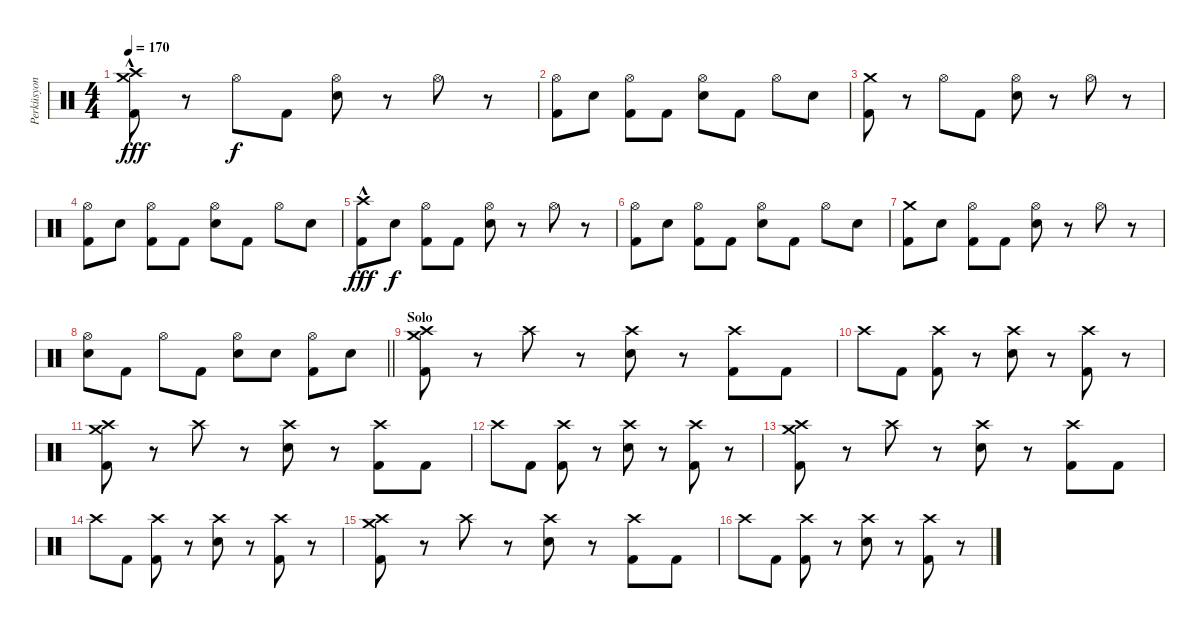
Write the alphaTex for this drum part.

\track ("Perküsyon" "Perküsyon") {instrument percussion}
\staff {score}
\articulation defaults
\ts (4 4)
\tempo 170
\clef neutral
\ks c
("Crash high (hit)" "Crash medium (hit)" "Kick (hit) 2"{hac}).8{dy fff} r.8 "Hi-Hat (open)".8{dy f} "Kick (hit) 2".8 ("Hi-Hat (open)" "Snare (hit) 2").8 r.8 "Hi-Hat (open)".8 r.8 |
("Hi-Hat (open)" "Kick (hit) 2").8 "Snare (hit) 2".8 ("Hi-Hat (open)" "Kick (hit) 2").8 "Kick (hit) 2".8 ("Hi-Hat (open)" "Snare (hit) 2").8 "Kick (hit) 2".8 "Hi-Hat (open)".8 "Snare (hit) 2".8 |
("Crash medium (hit)" "Kick (hit) 2").8 r.8 "Hi-Hat (open)".8 "Kick (hit) 2".8 ("Hi-Hat (open)" "Snare (hit) 2").8 r.8 "Hi-Hat (open)".8 r.8 |
("Hi-Hat (open)" "Kick (hit) 2").8 "Snare (hit) 2".8 ("Hi-Hat (open)" "Kick (hit) 2").8 "Kick (hit) 2".8 ("Hi-Hat (open)" "Snare (hit) 2").8 "Kick (hit) 2".8 "Hi-Hat (open)".8 "Snare (hit) 2".8 |
("Crash high (hit)" "Kick (hit) 2"{hac}).8{dy fff} "Snare (hit) 2".8{dy f} ("Hi-Hat (open)" "Kick (hit) 2").8 "Kick (hit) 2".8 ("Hi-Hat (open)" "Snare (hit) 2").8 r.8 "Hi-Hat (open)".8 r.8 |
("Hi-Hat (open)" "Kick (hit) 2").8 "Snare (hit) 2".8 ("Hi-Hat (open)" "Kick (hit) 2").8 "Kick (hit) 2".8 ("Hi-Hat (open)" "Snare (hit) 2").8 "Kick (hit) 2".8 "Hi-Hat (open)".8 "Snare (hit) 2".8 |
("Crash medium (hit)" "Kick (hit) 2").8 "Snare (hit) 2".8 ("Hi-Hat (open)" "Kick (hit) 2").8 "Kick (hit) 2".8 ("Hi-Hat (open)" "Snare (hit) 2").8 r.8 "Hi-Hat (open)".8 r.8 |
\barLineRight lightlight
("Hi-Hat (open)" "Snare (hit) 2").8 "Kick (hit) 2".8 "Hi-Hat (open)".8 "Kick (hit) 2".8 ("Hi-Hat (open)" "Snare (hit) 2").8 "Snare (hit) 2".8 ("Hi-Hat (open)" "Kick (hit) 2").8 "Snare (hit) 2".8 |
\section ("" "Solo")
("Crash medium (hit)" "Crash high (hit)" "Kick (hit) 2").8 r.8 "Crash high (hit)".8 r.8 ("Crash high (hit)" "Snare (hit) 2").8 r.8 ("Crash high (hit)" "Kick (hit) 2").8 "Kick (hit) 2".8 |
"Crash high (hit)".8 "Kick (hit) 2".8 ("Crash high (hit)" "Kick (hit) 2").8 r.8 ("Crash high (hit)" "Snare (hit) 2").8 r.8 ("Crash high (hit)" "Kick (hit) 2").8 r.8 |
("Crash medium (hit)" "Crash high (hit)" "Kick (hit) 2").8 r.8 "Crash high (hit)".8 r.8 ("Crash high (hit)" "Snare (hit) 2").8 r.8 ("Crash high (hit)" "Kick (hit) 2").8 "Kick (hit) 2".8 |
"Crash high (hit)".8 "Kick (hit) 2".8 ("Crash high (hit)" "Kick (hit) 2").8 r.8 ("Crash high (hit)" "Snare (hit) 2").8 r.8 ("Crash high (hit)" "Kick (hit) 2").8 r.8 |
("Crash medium (hit)" "Crash high (hit)" "Kick (hit) 2").8 r.8 "Crash high (hit)".8 r.8 ("Crash high (hit)" "Snare (hit) 2").8 r.8 ("Crash high (hit)" "Kick (hit) 2").8 "Kick (hit) 2".8 |
"Crash high (hit)".8 "Kick (hit) 2".8 ("Crash high (hit)" "Kick (hit) 2").8 r.8 ("Crash high (hit)" "Snare (hit) 2").8 r.8 ("Crash high (hit)" "Kick (hit) 2").8 r.8 |
("Crash medium (hit)" "Crash high (hit)" "Kick (hit) 2").8 r.8 "Crash high (hit)".8 r.8 ("Crash high (hit)" "Snare (hit) 2").8 r.8 ("Crash high (hit)" "Kick (hit) 2").8 "Kick (hit) 2".8 |
"Crash high (hit)".8 "Kick (hit) 2".8 ("Crash high (hit)" "Kick (hit) 2").8 r.8 ("Crash high (hit)" "Snare (hit) 2").8 r.8 ("Crash high (hit)" "Kick (hit) 2").8 r.8
